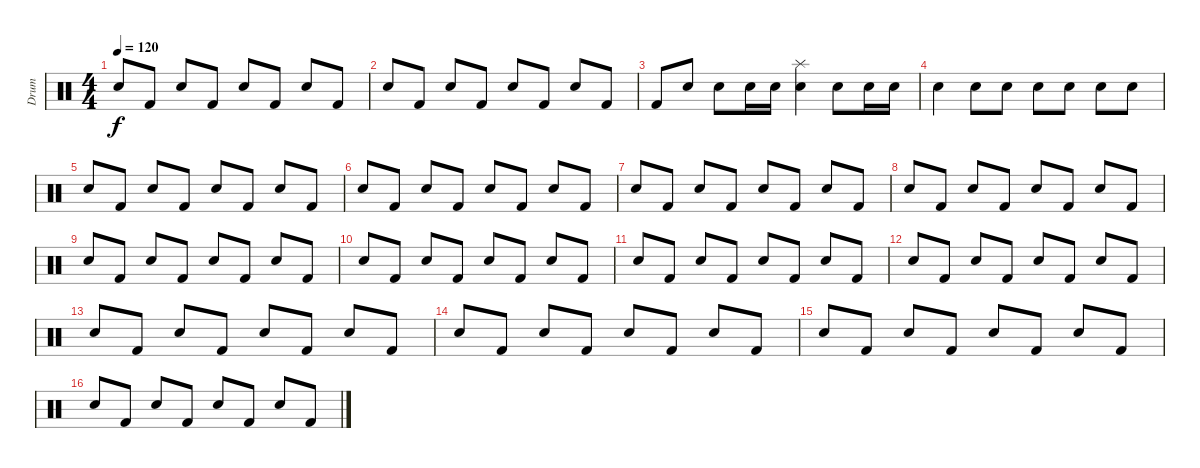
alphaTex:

\track ("Drum" "Drum") {instrument percussion}
\staff {score}
\articulation defaults
\ts (4 4)
\tempo 120
\clef neutral
\ks c "Snare (hit) 2".8{dy f} "Kick (hit) 2".8 "Snare (hit) 2".8 "Kick (hit) 2".8 "Snare (hit) 2".8 "Kick (hit) 2".8 "Snare (hit) 2".8 "Kick (hit) 2".8
|
"Snare (hit) 2".8 "Kick (hit) 2".8 "Snare (hit) 2".8 "Kick (hit) 2".8 "Snare (hit) 2".8 "Kick (hit) 2".8 "Snare (hit) 2".8 "Kick (hit) 2".8 |
"Kick (hit) 2".8 "Snare (hit) 2".8 "Snare (hit) 2".8 "Snare (hit) 2".16 "Snare (hit) 2".16 ("Splash (hit)" "Snare (hit) 2").4 "Snare (hit) 2".8 "Snare (hit) 2".16 "Snare (hit) 2".16 |
"Snare (hit) 2".4 "Snare (hit) 2".8 "Snare (hit) 2".8 "Snare (hit) 2".8 "Snare (hit) 2".8 "Snare (hit) 2".8 "Snare (hit) 2".8 |
"Snare (hit) 2".8 "Kick (hit) 2".8 "Snare (hit) 2".8 "Kick (hit) 2".8 "Snare (hit) 2".8 "Kick (hit) 2".8 "Snare (hit) 2".8 "Kick (hit) 2".8 |
"Snare (hit) 2".8 "Kick (hit) 2".8 "Snare (hit) 2".8 "Kick (hit) 2".8 "Snare (hit) 2".8 "Kick (hit) 2".8 "Snare (hit) 2".8 "Kick (hit) 2".8 |
"Snare (hit) 2".8 "Kick (hit) 2".8 "Snare (hit) 2".8 "Kick (hit) 2".8 "Snare (hit) 2".8 "Kick (hit) 2".8 "Snare (hit) 2".8 "Kick (hit) 2".8 |
"Snare (hit) 2".8 "Kick (hit) 2".8 "Snare (hit) 2".8 "Kick (hit) 2".8 "Snare (hit) 2".8 "Kick (hit) 2".8 "Snare (hit) 2".8 "Kick (hit) 2".8 |
"Snare (hit) 2".8 "Kick (hit) 2".8 "Snare (hit) 2".8 "Kick (hit) 2".8 "Snare (hit) 2".8 "Kick (hit) 2".8 "Snare (hit) 2".8 "Kick (hit) 2".8 |
"Snare (hit) 2".8 "Kick (hit) 2".8 "Snare (hit) 2".8 "Kick (hit) 2".8 "Snare (hit) 2".8 "Kick (hit) 2".8 "Snare (hit) 2".8 "Kick (hit) 2".8 |
"Snare (hit) 2".8 "Kick (hit) 2".8 "Snare (hit) 2".8 "Kick (hit) 2".8 "Snare (hit) 2".8 "Kick (hit) 2".8 "Snare (hit) 2".8 "Kick (hit) 2".8 |
"Snare (hit) 2".8 "Kick (hit) 2".8 "Snare (hit) 2".8 "Kick (hit) 2".8 "Snare (hit) 2".8 "Kick (hit) 2".8 "Snare (hit) 2".8 "Kick (hit) 2".8 |
"Snare (hit) 2".8 "Kick (hit) 2".8 "Snare (hit) 2".8 "Kick (hit) 2".8 "Snare (hit) 2".8 "Kick (hit) 2".8 "Snare (hit) 2".8 "Kick (hit) 2".8 |
"Snare (hit) 2".8 "Kick (hit) 2".8 "Snare (hit) 2".8 "Kick (hit) 2".8 "Snare (hit) 2".8 "Kick (hit) 2".8 "Snare (hit) 2".8 "Kick (hit) 2".8 |
"Snare (hit) 2".8 "Kick (hit) 2".8 "Snare (hit) 2".8 "Kick (hit) 2".8 "Snare (hit) 2".8 "Kick (hit) 2".8 "Snare (hit) 2".8 "Kick (hit) 2".8 |
"Snare (hit) 2".8 "Kick (hit) 2".8 "Snare (hit) 2".8 "Kick (hit) 2".8 "Snare (hit) 2".8 "Kick (hit) 2".8 "Snare (hit) 2".8 "Kick (hit) 2".8
